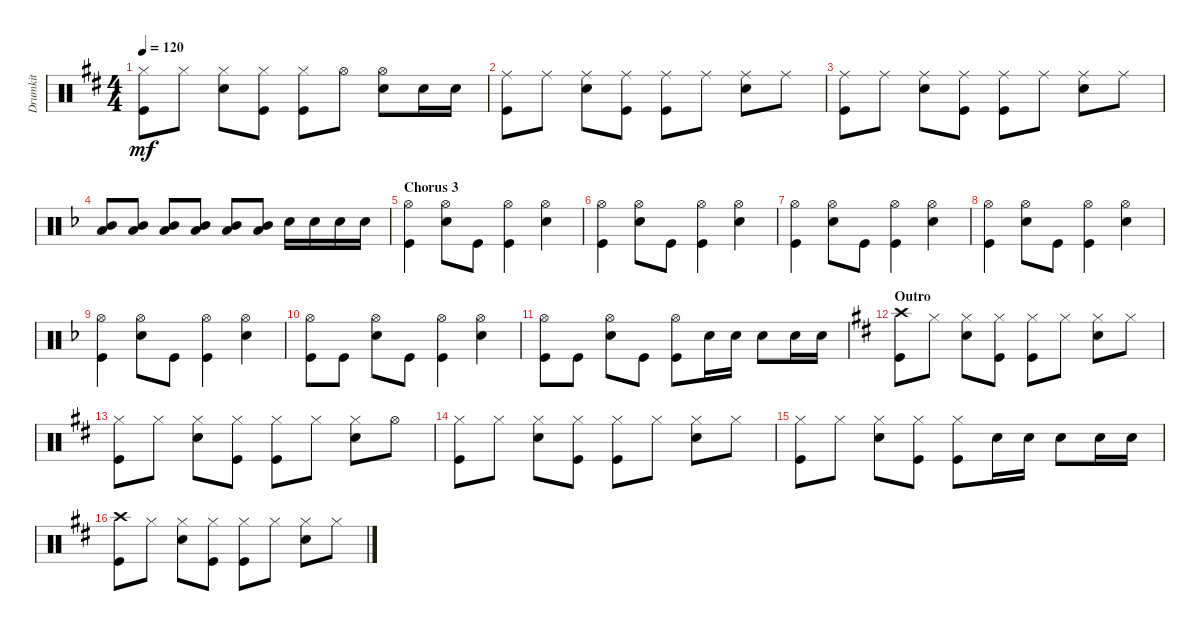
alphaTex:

\track ("Drumkit" "Drumkit") {instrument percussion}
\staff {score}
\articulation defaults
\ts (4 4)
\tempo 120
\clef neutral
\ks d
("Kick (hit)" "Hi-Hat (closed)").8{dy mf} "Hi-Hat (closed)".8 ("Hi-Hat (closed)" "Snare (hit) 2").8 ("Hi-Hat (closed)" "Kick (hit)").8 ("Hi-Hat (closed)" "Kick (hit)").8 "Hi-Hat (open)".8 ("Hi-Hat (open)" "Snare (hit) 2").8 "Snare (hit) 2".16 "Snare (hit) 2".16 |
("Kick (hit)" "Ride (middle)").8 "Ride (middle)".8 ("Snare (hit) 2" "Ride (middle)").8 ("Kick (hit)" "Ride (middle)").8 ("Kick (hit)" "Ride (middle)").8 "Ride (middle)".8 ("Snare (hit) 2" "Ride (middle)").8 "Ride (middle)".8 |
("Kick (hit)" "Ride (middle)").8 "Ride (middle)".8 ("Snare (hit) 2" "Ride (middle)").8 ("Kick (hit)" "Ride (middle)").8 ("Kick (hit)" "Ride (middle)").8 "Ride (middle)".8 ("Snare (hit) 2" "Ride (middle)").8 "Ride (middle)".8 |
\ks dminor
("Low Tom (hit)" "Mid Tom (hit)").8 ("Low Tom (hit)" "Mid Tom (hit)").8 ("Low Tom (hit)" "Mid Tom (hit)").8 ("Low Tom (hit)" "Mid Tom (hit)").8 ("Low Tom (hit)" "Mid Tom (hit)").8 ("Low Tom (hit)" "Mid Tom (hit)").8 "Snare (hit) 2".16 "Snare (hit) 2".16 "Snare (hit) 2".16 "Snare (hit) 2".16 |
\section ("" "Chorus 3")
("Kick (hit)" "Hi-Hat (open)").4 ("Hi-Hat (open)" "Snare (hit) 2").8 "Kick (hit)".8 ("Hi-Hat (open)" "Kick (hit)").4 ("Snare (hit) 2" "Hi-Hat (open)").4 |
("Kick (hit)" "Hi-Hat (open)").4 ("Hi-Hat (open)" "Snare (hit) 2").8 "Kick (hit)".8 ("Hi-Hat (open)" "Kick (hit)").4 ("Snare (hit) 2" "Hi-Hat (open)").4 |
("Kick (hit)" "Hi-Hat (open)").4 ("Hi-Hat (open)" "Snare (hit) 2").8 "Kick (hit)".8 ("Hi-Hat (open)" "Kick (hit)").4 ("Snare (hit) 2" "Hi-Hat (open)").4 |
("Kick (hit)" "Hi-Hat (open)").4 ("Hi-Hat (open)" "Snare (hit) 2").8 "Kick (hit)".8 ("Hi-Hat (open)" "Kick (hit)").4 ("Snare (hit) 2" "Hi-Hat (open)").4 |
("Kick (hit)" "Hi-Hat (open)").4 ("Hi-Hat (open)" "Snare (hit) 2").8 "Kick (hit)".8 ("Hi-Hat (open)" "Kick (hit)").4 ("Snare (hit) 2" "Hi-Hat (open)").4 |
("Kick (hit)" "Hi-Hat (open)").8 "Kick (hit)".8 ("Hi-Hat (open)" "Snare (hit) 2").8 "Kick (hit)".8 ("Hi-Hat (open)" "Kick (hit)").4 ("Snare (hit) 2" "Hi-Hat (open)").4 |
("Kick (hit)" "Hi-Hat (open)").8 "Kick (hit)".8 ("Hi-Hat (open)" "Snare (hit) 2").8 "Kick (hit)".8 ("Hi-Hat (open)" "Kick (hit)").8 "Snare (hit) 2".16 "Snare (hit) 2".16 "Snare (hit) 2".8 "Snare (hit) 2".16 "Snare (hit) 2".16 |
\section ("" "Outro")
\ks d
("Kick (hit)" "Crash high (hit)").8 "Hi-Hat (closed)".8 ("Hi-Hat (closed)" "Snare (hit) 2").8 ("Hi-Hat (closed)" "Kick (hit)").8 ("Hi-Hat (closed)" "Kick (hit)").8 "Hi-Hat (closed)".8 ("Hi-Hat (closed)" "Snare (hit) 2").8 "Hi-Hat (closed)".8 |
("Kick (hit)" "Hi-Hat (closed)").8 "Hi-Hat (closed)".8 ("Hi-Hat (closed)" "Snare (hit) 2").8 ("Hi-Hat (closed)" "Kick (hit)").8 ("Hi-Hat (closed)" "Kick (hit)").8 "Hi-Hat (closed)".8 ("Hi-Hat (closed)" "Snare (hit) 2").8 "Hi-Hat (open)".8 |
("Kick (hit)" "Hi-Hat (closed)").8 "Hi-Hat (closed)".8 ("Hi-Hat (closed)" "Snare (hit) 2").8 ("Hi-Hat (closed)" "Kick (hit)").8 ("Hi-Hat (closed)" "Kick (hit)").8 "Hi-Hat (closed)".8 ("Hi-Hat (closed)" "Snare (hit) 2").8 "Hi-Hat (closed)".8 |
("Kick (hit)" "Hi-Hat (closed)").8 "Hi-Hat (closed)".8 ("Hi-Hat (closed)" "Snare (hit) 2").8 ("Hi-Hat (closed)" "Kick (hit)").8 ("Hi-Hat (closed)" "Kick (hit)").8 "Snare (hit) 2".16 "Snare (hit) 2".16 "Snare (hit) 2".8 "Snare (hit) 2".16 "Snare (hit) 2".16 |
("Kick (hit)" "Crash high (hit)").8 "Hi-Hat (closed)".8 ("Hi-Hat (closed)" "Snare (hit) 2").8 ("Hi-Hat (closed)" "Kick (hit)").8 ("Hi-Hat (closed)" "Kick (hit)").8 "Hi-Hat (closed)".8 ("Hi-Hat (closed)" "Snare (hit) 2").8 "Hi-Hat (closed)".8
